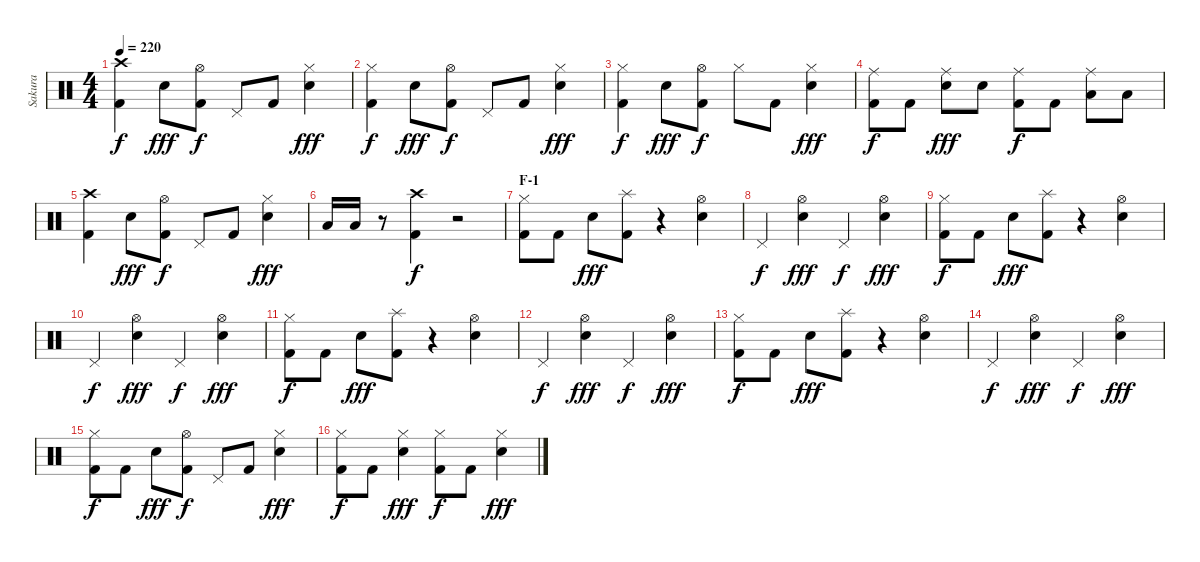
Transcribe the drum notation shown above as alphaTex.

\track ("Sakura" "Sakura") {instrument percussion}
\staff {score}
\articulation defaults
\ts (4 4)
\tempo 220
\clef neutral
\ks c
("Crash high (hit)" "Kick (hit) 2").4{dy f} "Electric Snare (hit)".8{dy fff} ("Hi-Hat (open)" "Kick (hit) 2").8{dy f} "Pedal Hi-Hat (hit)".8 "Kick (hit) 2".8 ("Hi-Hat (closed)" "Electric Snare (hit)").4{dy fff} |
("Hi-Hat (closed)" "Kick (hit) 2").4{dy f} "Electric Snare (hit)".8{dy fff} ("Hi-Hat (open)" "Kick (hit) 2").8{dy f} "Pedal Hi-Hat (hit)".8 "Kick (hit) 2".8 ("Hi-Hat (closed)" "Electric Snare (hit)").4{dy fff} |
("Hi-Hat (closed)" "Kick (hit) 2").4{dy f} "Electric Snare (hit)".8{dy fff} ("Hi-Hat (open)" "Kick (hit) 2").8{dy f} "Hi-Hat (closed)".8 "Kick (hit) 2".8 ("Hi-Hat (closed)" "Electric Snare (hit)").4{dy fff} |
("Ride (middle)" "Kick (hit) 2").8{dy f} "Kick (hit) 2".8 ("Ride (middle)" "Electric Snare (hit)").8{dy fff} "Electric Snare (hit)".8 ("Ride (middle)" "Kick (hit) 2").8{dy f} "Kick (hit) 2".8 ("Ride (middle)" "Low Tom (hit)").8 "Low Tom (hit)".8 |
("Crash high (hit)" "Kick (hit) 2").4 "Electric Snare (hit)".8{dy fff} ("Hi-Hat (open)" "Kick (hit) 2").8{dy f} "Pedal Hi-Hat (hit)".8 "Kick (hit) 2".8 ("Hi-Hat (closed)" "Electric Snare (hit)").4{dy fff} |
"Low Tom (hit)".16 "Low Tom (hit)".16 r.8 ("Crash high (hit)" "Kick (hit) 2").4{dy f} r.2 |
\section ("" "F-1")
("Hi-Hat (closed)" "Kick (hit) 2").8 "Kick (hit) 2".8 "Electric Snare (hit)".8{dy fff} ("Splash (hit)" "Kick (hit) 2").8 r.4 ("Hi-Hat (open)" "Electric Snare (hit)").4 |
"Pedal Hi-Hat (hit)".4{dy f} ("Hi-Hat (open)" "Electric Snare (hit)").4{dy fff} "Pedal Hi-Hat (hit)".4{dy f} ("Hi-Hat (open)" "Electric Snare (hit)").4{dy fff} |
("Hi-Hat (closed)" "Kick (hit) 2").8{dy f} "Kick (hit) 2".8 "Electric Snare (hit)".8{dy fff} ("Splash (hit)" "Kick (hit) 2").8 r.4 ("Hi-Hat (open)" "Electric Snare (hit)").4 |
"Pedal Hi-Hat (hit)".4{dy f} ("Hi-Hat (open)" "Electric Snare (hit)").4{dy fff} "Pedal Hi-Hat (hit)".4{dy f} ("Hi-Hat (open)" "Electric Snare (hit)").4{dy fff} |
("Hi-Hat (closed)" "Kick (hit) 2").8{dy f} "Kick (hit) 2".8 "Electric Snare (hit)".8{dy fff} ("Splash (hit)" "Kick (hit) 2").8 r.4 ("Hi-Hat (open)" "Electric Snare (hit)").4 |
"Pedal Hi-Hat (hit)".4{dy f} ("Hi-Hat (open)" "Electric Snare (hit)").4{dy fff} "Pedal Hi-Hat (hit)".4{dy f} ("Hi-Hat (open)" "Electric Snare (hit)").4{dy fff} |
("Hi-Hat (closed)" "Kick (hit) 2").8{dy f} "Kick (hit) 2".8 "Electric Snare (hit)".8{dy fff} ("Splash (hit)" "Kick (hit) 2").8 r.4 ("Hi-Hat (open)" "Electric Snare (hit)").4 |
"Pedal Hi-Hat (hit)".4{dy f} ("Hi-Hat (open)" "Electric Snare (hit)").4{dy fff} "Pedal Hi-Hat (hit)".4{dy f} ("Hi-Hat (open)" "Electric Snare (hit)").4{dy fff} |
("Hi-Hat (closed)" "Kick (hit) 2").8{dy f} "Kick (hit) 2".8 "Electric Snare (hit)".8{dy fff} ("Hi-Hat (open)" "Kick (hit) 2").8{dy f} "Pedal Hi-Hat (hit)".8 "Kick (hit) 2".8 ("Hi-Hat (closed)" "Electric Snare (hit)").4{dy fff} |
("Hi-Hat (closed)" "Kick (hit) 2").8{dy f} "Kick (hit) 2".8 ("Hi-Hat (closed)" "Electric Snare (hit)").4{dy fff} ("Hi-Hat (closed)" "Kick (hit) 2").8{dy f} "Kick (hit) 2".8 ("Hi-Hat (closed)" "Electric Snare (hit)").4{dy fff}
